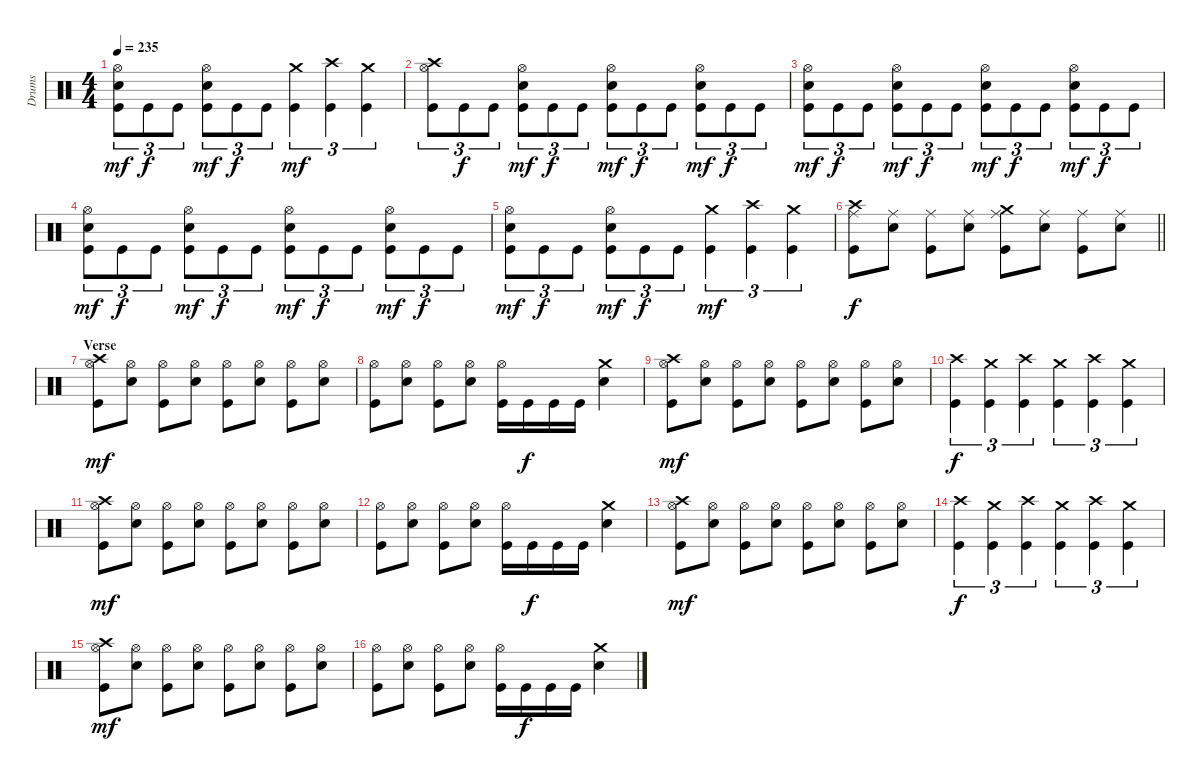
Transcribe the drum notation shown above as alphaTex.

\track ("Drums" "Drums") {instrument percussion}
\staff {score}
\articulation defaults
\ts (4 4)
\tempo 235
\clef neutral
\ks c
("Hi-Hat (open)" "Electric Snare (hit)" "Kick (hit)").8{tu (3 2) dy mf} "Kick (hit)".8{tu (3 2) dy f} "Kick (hit)".8{tu (3 2)} ("Hi-Hat (open)" "Electric Snare (hit)" "Kick (hit)").8{tu (3 2) dy mf} "Kick (hit)".8{tu (3 2) dy f} "Kick (hit)".8{tu (3 2)} ("Crash medium (hit)" "Kick (hit)").4{tu (3 2) dy mf} ("Crash high (hit)" "Kick (hit)").4{tu (3 2)} ("Crash medium (hit)" "Kick (hit)").4{tu (3 2)} |
("Crash high (hit)" "Hi-Hat (open)" "Kick (hit)").8{tu (3 2)} "Kick (hit)".8{tu (3 2) dy f} "Kick (hit)".8{tu (3 2)} ("Hi-Hat (open)" "Electric Snare (hit)" "Kick (hit)").8{tu (3 2) dy mf} "Kick (hit)".8{tu (3 2) dy f} "Kick (hit)".8{tu (3 2)} ("Hi-Hat (open)" "Electric Snare (hit)" "Kick (hit)").8{tu (3 2) dy mf} "Kick (hit)".8{tu (3 2) dy f} "Kick (hit)".8{tu (3 2)} ("Hi-Hat (open)" "Electric Snare (hit)" "Kick (hit)").8{tu (3 2) dy mf} "Kick (hit)".8{tu (3 2) dy f} "Kick (hit)".8{tu (3 2)} |
("Hi-Hat (open)" "Electric Snare (hit)" "Kick (hit)").8{tu (3 2) dy mf} "Kick (hit)".8{tu (3 2) dy f} "Kick (hit)".8{tu (3 2)} ("Hi-Hat (open)" "Electric Snare (hit)" "Kick (hit)").8{tu (3 2) dy mf} "Kick (hit)".8{tu (3 2) dy f} "Kick (hit)".8{tu (3 2)} ("Hi-Hat (open)" "Electric Snare (hit)" "Kick (hit)").8{tu (3 2) dy mf} "Kick (hit)".8{tu (3 2) dy f} "Kick (hit)".8{tu (3 2)} ("Hi-Hat (open)" "Electric Snare (hit)" "Kick (hit)").8{tu (3 2) dy mf} "Kick (hit)".8{tu (3 2) dy f} "Kick (hit)".8{tu (3 2)} |
("Hi-Hat (open)" "Electric Snare (hit)" "Kick (hit)").8{tu (3 2) dy mf} "Kick (hit)".8{tu (3 2) dy f} "Kick (hit)".8{tu (3 2)} ("Hi-Hat (open)" "Electric Snare (hit)" "Kick (hit)").8{tu (3 2) dy mf} "Kick (hit)".8{tu (3 2) dy f} "Kick (hit)".8{tu (3 2)} ("Hi-Hat (open)" "Electric Snare (hit)" "Kick (hit)").8{tu (3 2) dy mf} "Kick (hit)".8{tu (3 2) dy f} "Kick (hit)".8{tu (3 2)} ("Hi-Hat (open)" "Electric Snare (hit)" "Kick (hit)").8{tu (3 2) dy mf} "Kick (hit)".8{tu (3 2) dy f} "Kick (hit)".8{tu (3 2)} |
("Hi-Hat (open)" "Electric Snare (hit)" "Kick (hit)").8{tu (3 2) dy mf} "Kick (hit)".8{tu (3 2) dy f} "Kick (hit)".8{tu (3 2)} ("Hi-Hat (open)" "Electric Snare (hit)" "Kick (hit)").8{tu (3 2) dy mf} "Kick (hit)".8{tu (3 2) dy f} "Kick (hit)".8{tu (3 2)} ("Crash medium (hit)" "Kick (hit)").4{tu (3 2) dy mf} ("Crash high (hit)" "Kick (hit)").4{tu (3 2)} ("Crash medium (hit)" "Kick (hit)").4{tu (3 2)} |
\barLineRight lightlight
("Crash high (hit)" "Ride (middle)" "Kick (hit)").8{dy f} ("Ride (middle)" "Electric Snare (hit)").8 ("Ride (middle)" "Kick (hit)").8 ("Ride (middle)" "Electric Snare (hit)").8 ("Crash medium (hit)" "Ride (middle)" "Kick (hit)").8 ("Ride (middle)" "Electric Snare (hit)").8 ("Ride (middle)" "Kick (hit)").8 ("Ride (middle)" "Electric Snare (hit)").8 |
\section ("" "Verse")
("Crash high (hit)" "Hi-Hat (open)" "Kick (hit)").8{dy mf} ("Hi-Hat (open)" "Electric Snare (hit)").8 ("Hi-Hat (open)" "Kick (hit)").8 ("Hi-Hat (open)" "Electric Snare (hit)").8 ("Hi-Hat (open)" "Kick (hit)").8 ("Hi-Hat (open)" "Electric Snare (hit)").8 ("Hi-Hat (open)" "Kick (hit)").8 ("Hi-Hat (open)" "Electric Snare (hit)").8 |
("Hi-Hat (open)" "Kick (hit)").8 ("Hi-Hat (open)" "Electric Snare (hit)").8 ("Hi-Hat (open)" "Kick (hit)").8 ("Hi-Hat (open)" "Electric Snare (hit)").8 ("Hi-Hat (open)" "Kick (hit)").16 "Kick (hit)".16{dy f} "Kick (hit)".16 "Kick (hit)".16 ("Crash medium (hit)" "Electric Snare (hit)").4 |
("Crash high (hit)" "Hi-Hat (open)" "Kick (hit)").8{dy mf} ("Hi-Hat (open)" "Electric Snare (hit)").8 ("Hi-Hat (open)" "Kick (hit)").8 ("Hi-Hat (open)" "Electric Snare (hit)").8 ("Hi-Hat (open)" "Kick (hit)").8 ("Hi-Hat (open)" "Electric Snare (hit)").8 ("Hi-Hat (open)" "Kick (hit)").8 ("Hi-Hat (open)" "Electric Snare (hit)").8 |
("Crash high (hit)" "Kick (hit)").4{tu (3 2) dy f} ("Crash medium (hit)" "Kick (hit)").4{tu (3 2)} ("Crash high (hit)" "Kick (hit)").4{tu (3 2)} ("Crash medium (hit)" "Kick (hit)").4{tu (3 2)} ("Crash high (hit)" "Kick (hit)").4{tu (3 2)} ("Crash medium (hit)" "Kick (hit)").4{tu (3 2)} |
("Crash high (hit)" "Hi-Hat (open)" "Kick (hit)").8{dy mf} ("Hi-Hat (open)" "Electric Snare (hit)").8 ("Hi-Hat (open)" "Kick (hit)").8 ("Hi-Hat (open)" "Electric Snare (hit)").8 ("Hi-Hat (open)" "Kick (hit)").8 ("Hi-Hat (open)" "Electric Snare (hit)").8 ("Hi-Hat (open)" "Kick (hit)").8 ("Hi-Hat (open)" "Electric Snare (hit)").8 |
("Hi-Hat (open)" "Kick (hit)").8 ("Hi-Hat (open)" "Electric Snare (hit)").8 ("Hi-Hat (open)" "Kick (hit)").8 ("Hi-Hat (open)" "Electric Snare (hit)").8 ("Hi-Hat (open)" "Kick (hit)").16 "Kick (hit)".16{dy f} "Kick (hit)".16 "Kick (hit)".16 ("Crash medium (hit)" "Electric Snare (hit)").4 |
("Crash high (hit)" "Hi-Hat (open)" "Kick (hit)").8{dy mf} ("Hi-Hat (open)" "Electric Snare (hit)").8 ("Hi-Hat (open)" "Kick (hit)").8 ("Hi-Hat (open)" "Electric Snare (hit)").8 ("Hi-Hat (open)" "Kick (hit)").8 ("Hi-Hat (open)" "Electric Snare (hit)").8 ("Hi-Hat (open)" "Kick (hit)").8 ("Hi-Hat (open)" "Electric Snare (hit)").8 |
("Crash high (hit)" "Kick (hit)").4{tu (3 2) dy f} ("Crash medium (hit)" "Kick (hit)").4{tu (3 2)} ("Crash high (hit)" "Kick (hit)").4{tu (3 2)} ("Crash medium (hit)" "Kick (hit)").4{tu (3 2)} ("Crash high (hit)" "Kick (hit)").4{tu (3 2)} ("Crash medium (hit)" "Kick (hit)").4{tu (3 2)} |
("Crash high (hit)" "Hi-Hat (open)" "Kick (hit)").8{dy mf} ("Hi-Hat (open)" "Electric Snare (hit)").8 ("Hi-Hat (open)" "Kick (hit)").8 ("Hi-Hat (open)" "Electric Snare (hit)").8 ("Hi-Hat (open)" "Kick (hit)").8 ("Hi-Hat (open)" "Electric Snare (hit)").8 ("Hi-Hat (open)" "Kick (hit)").8 ("Hi-Hat (open)" "Electric Snare (hit)").8 |
("Hi-Hat (open)" "Kick (hit)").8 ("Hi-Hat (open)" "Electric Snare (hit)").8 ("Hi-Hat (open)" "Kick (hit)").8 ("Hi-Hat (open)" "Electric Snare (hit)").8 ("Hi-Hat (open)" "Kick (hit)").16 "Kick (hit)".16{dy f} "Kick (hit)".16 "Kick (hit)".16 ("Crash medium (hit)" "Electric Snare (hit)").4
